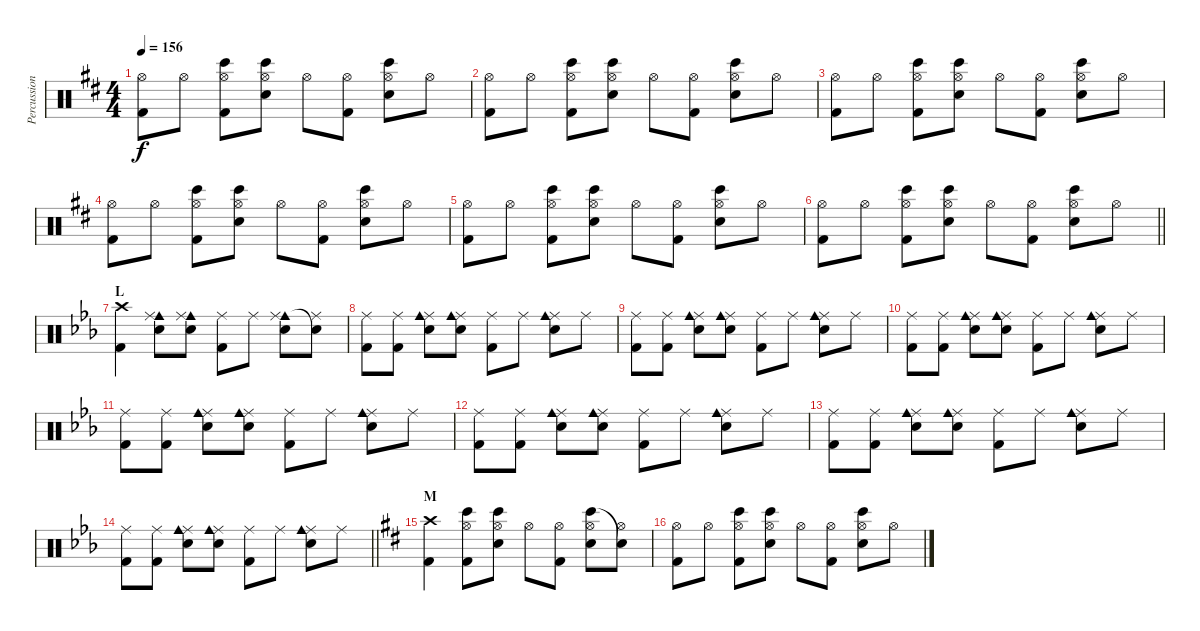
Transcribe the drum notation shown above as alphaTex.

\track ("Percussion" "Percussion") {instrument percussion}
\staff {score}
\articulation defaults
\ts (4 4)
\tempo 156
\clef neutral
\ks d
("Hi-Hat (open)" "Kick (hit) 2").8{dy f} "Hi-Hat (open)".8 ("Bongo High (hit)" "Hi-Hat (open)" "Kick (hit) 2").8 ("Bongo High (hit)" "Hi-Hat (open)" "Electric Snare (hit)").8 "Hi-Hat (open)".8 ("Hi-Hat (open)" "Kick (hit) 2").8 ("Bongo High (hit)" "Hi-Hat (open)" "Electric Snare (hit)").8 "Hi-Hat (open)".8 |
("Hi-Hat (open)" "Kick (hit) 2").8 "Hi-Hat (open)".8 ("Bongo High (hit)" "Hi-Hat (open)" "Kick (hit) 2").8 ("Bongo High (hit)" "Hi-Hat (open)" "Electric Snare (hit)").8 "Hi-Hat (open)".8 ("Hi-Hat (open)" "Kick (hit) 2").8 ("Bongo High (hit)" "Hi-Hat (open)" "Electric Snare (hit)").8 "Hi-Hat (open)".8 |
("Hi-Hat (open)" "Kick (hit) 2").8 "Hi-Hat (open)".8 ("Bongo High (hit)" "Hi-Hat (open)" "Kick (hit) 2").8 ("Bongo High (hit)" "Hi-Hat (open)" "Electric Snare (hit)").8 "Hi-Hat (open)".8 ("Hi-Hat (open)" "Kick (hit) 2").8 ("Bongo High (hit)" "Hi-Hat (open)" "Electric Snare (hit)").8 "Hi-Hat (open)".8 |
("Hi-Hat (open)" "Kick (hit) 2").8 "Hi-Hat (open)".8 ("Bongo High (hit)" "Hi-Hat (open)" "Kick (hit) 2").8 ("Bongo High (hit)" "Hi-Hat (open)" "Electric Snare (hit)").8 "Hi-Hat (open)".8 ("Hi-Hat (open)" "Kick (hit) 2").8 ("Bongo High (hit)" "Hi-Hat (open)" "Electric Snare (hit)").8 "Hi-Hat (open)".8 |
("Hi-Hat (open)" "Kick (hit) 2").8 "Hi-Hat (open)".8 ("Bongo High (hit)" "Hi-Hat (open)" "Kick (hit) 2").8 ("Bongo High (hit)" "Hi-Hat (open)" "Electric Snare (hit)").8 "Hi-Hat (open)".8 ("Hi-Hat (open)" "Kick (hit) 2").8 ("Bongo High (hit)" "Hi-Hat (open)" "Electric Snare (hit)").8 "Hi-Hat (open)".8 |
\barLineRight lightlight
("Hi-Hat (open)" "Kick (hit) 2").8 "Hi-Hat (open)".8 ("Bongo High (hit)" "Hi-Hat (open)" "Kick (hit) 2").8 ("Bongo High (hit)" "Hi-Hat (open)" "Electric Snare (hit)").8 "Hi-Hat (open)".8 ("Hi-Hat (open)" "Kick (hit) 2").8 ("Bongo High (hit)" "Hi-Hat (open)" "Electric Snare (hit)").8 "Hi-Hat (open)".8 |
\section ("" "L")
\ks eb
("Crash high (hit)" "Kick (hit) 2").4 ("Cowbell medium (hit)" "Ride (middle)" "Electric Snare (hit)").8 ("Cowbell medium (hit)" "Ride (middle)" "Electric Snare (hit)").8 ("Ride (middle)" "Kick (hit) 2").8 "Ride (middle)".8 ("Cowbell medium (hit)" "Ride (middle)" "Electric Snare (hit)").8 ("Snare (hit)"{t} "Ride (middle)").8 |
("Ride (middle)" "Kick (hit) 2").8 ("Ride (middle)" "Kick (hit) 2").8 ("Ride (middle)" "Electric Snare (hit)" "Cowbell medium (hit)").8 ("Ride (middle)" "Electric Snare (hit)" "Cowbell medium (hit)").8 ("Ride (middle)" "Kick (hit) 2").8 "Ride (middle)".8 ("Ride (middle)" "Electric Snare (hit)" "Cowbell medium (hit)").8 "Ride (middle)".8 |
("Ride (middle)" "Kick (hit) 2").8 ("Ride (middle)" "Kick (hit) 2").8 ("Ride (middle)" "Electric Snare (hit)" "Cowbell medium (hit)").8 ("Ride (middle)" "Electric Snare (hit)" "Cowbell medium (hit)").8 ("Ride (middle)" "Kick (hit) 2").8 "Ride (middle)".8 ("Ride (middle)" "Electric Snare (hit)" "Cowbell medium (hit)").8 "Ride (middle)".8 |
("Ride (middle)" "Kick (hit) 2").8 ("Ride (middle)" "Kick (hit) 2").8 ("Ride (middle)" "Electric Snare (hit)" "Cowbell medium (hit)").8 ("Ride (middle)" "Electric Snare (hit)" "Cowbell medium (hit)").8 ("Ride (middle)" "Kick (hit) 2").8 "Ride (middle)".8 ("Ride (middle)" "Electric Snare (hit)" "Cowbell medium (hit)").8 "Ride (middle)".8 |
("Ride (middle)" "Kick (hit) 2").8 ("Ride (middle)" "Kick (hit) 2").8 ("Ride (middle)" "Electric Snare (hit)" "Cowbell medium (hit)").8 ("Ride (middle)" "Electric Snare (hit)" "Cowbell medium (hit)").8 ("Ride (middle)" "Kick (hit) 2").8 "Ride (middle)".8 ("Ride (middle)" "Electric Snare (hit)" "Cowbell medium (hit)").8 "Ride (middle)".8 |
("Ride (middle)" "Kick (hit) 2").8 ("Ride (middle)" "Kick (hit) 2").8 ("Ride (middle)" "Electric Snare (hit)" "Cowbell medium (hit)").8 ("Ride (middle)" "Electric Snare (hit)" "Cowbell medium (hit)").8 ("Ride (middle)" "Kick (hit) 2").8 "Ride (middle)".8 ("Ride (middle)" "Electric Snare (hit)" "Cowbell medium (hit)").8 "Ride (middle)".8 |
("Ride (middle)" "Kick (hit) 2").8 ("Ride (middle)" "Kick (hit) 2").8 ("Ride (middle)" "Electric Snare (hit)" "Cowbell medium (hit)").8 ("Ride (middle)" "Electric Snare (hit)" "Cowbell medium (hit)").8 ("Ride (middle)" "Kick (hit) 2").8 "Ride (middle)".8 ("Ride (middle)" "Electric Snare (hit)" "Cowbell medium (hit)").8 "Ride (middle)".8 |
\barLineRight lightlight
("Ride (middle)" "Kick (hit) 2").8 ("Ride (middle)" "Kick (hit) 2").8 ("Ride (middle)" "Electric Snare (hit)" "Cowbell medium (hit)").8 ("Ride (middle)" "Electric Snare (hit)" "Cowbell medium (hit)").8 ("Ride (middle)" "Kick (hit) 2").8 "Ride (middle)".8 ("Ride (middle)" "Electric Snare (hit)" "Cowbell medium (hit)").8 "Ride (middle)".8 |
\section ("" "M")
\ks d
("Crash high (hit)" "Kick (hit) 2").4 ("Bongo High (hit)" "Hi-Hat (open)" "Kick (hit) 2").8 ("Bongo High (hit)" "Hi-Hat (open)" "Electric Snare (hit)").8 "Hi-Hat (open)".8 ("Hi-Hat (open)" "Kick (hit) 2").8 ("Bongo High (hit)" "Hi-Hat (open)" "Electric Snare (hit)").8 ("Snare (hit)"{t} "Hi-Hat (open)").8 |
("Hi-Hat (open)" "Kick (hit) 2").8 "Hi-Hat (open)".8 ("Bongo High (hit)" "Hi-Hat (open)" "Kick (hit) 2").8 ("Bongo High (hit)" "Hi-Hat (open)" "Electric Snare (hit)").8 "Hi-Hat (open)".8 ("Hi-Hat (open)" "Kick (hit) 2").8 ("Bongo High (hit)" "Hi-Hat (open)" "Electric Snare (hit)").8 "Hi-Hat (open)".8
